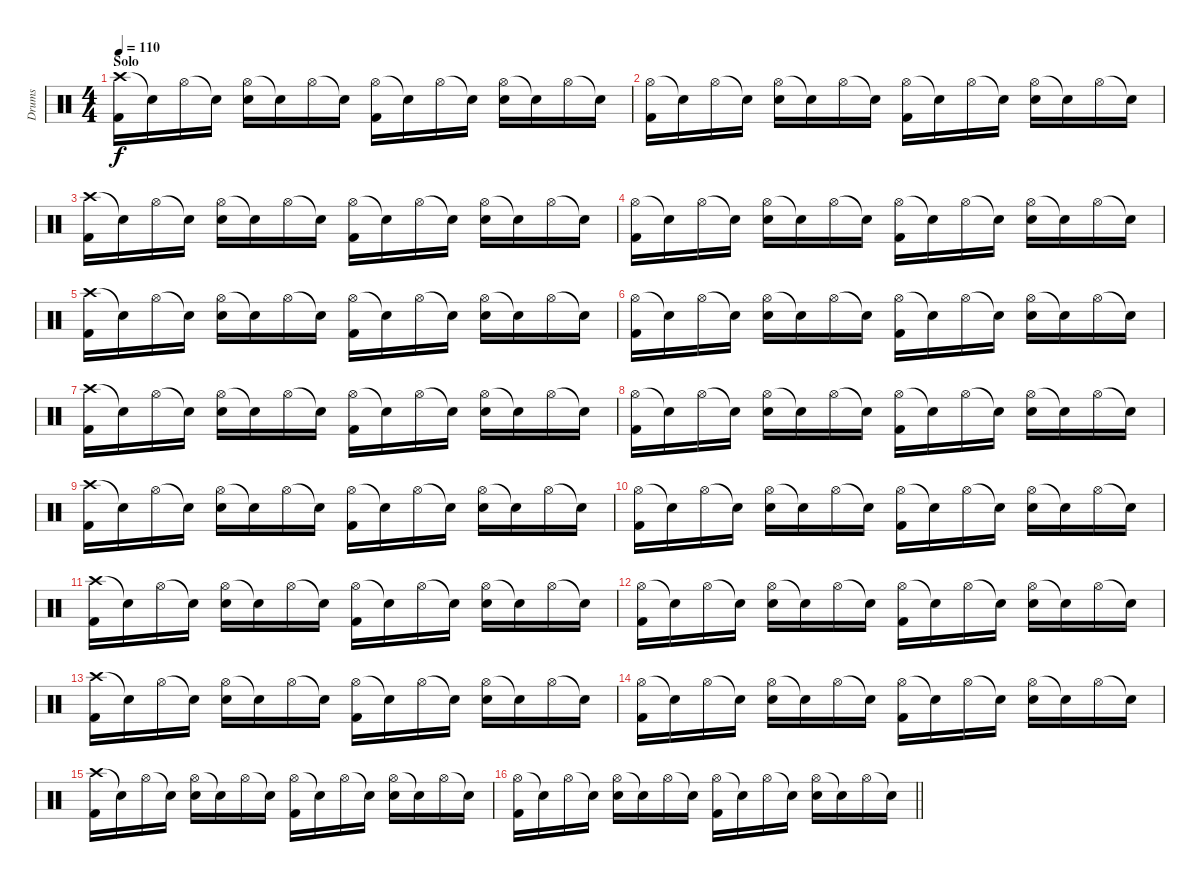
\track ("Drums" "Drums") {instrument percussion}
\staff {score}
\articulation defaults
\ts (4 4)
\section ("" "Solo")
\tempo 110
\clef neutral
\ks c
("Crash high (hit)" "Kick (hit) 2").16{dy f} "Snare (hit)"{t}.16 "Hi-Hat (open)".16 "Snare (hit)"{t}.16 ("Hi-Hat (open)" "Electric Snare (hit)").16 "Snare (hit)"{t}.16 "Hi-Hat (open)".16 "Snare (hit)"{t}.16 ("Hi-Hat (open)" "Kick (hit) 2").16 "Snare (hit)"{t}.16 "Hi-Hat (open)".16 "Snare (hit)"{t}.16 ("Hi-Hat (open)" "Electric Snare (hit)").16 "Snare (hit)"{t}.16 "Hi-Hat (open)".16 "Snare (hit)"{t}.16 |
("Hi-Hat (open)" "Kick (hit) 2").16 "Snare (hit)"{t}.16 "Hi-Hat (open)".16 "Snare (hit)"{t}.16 ("Hi-Hat (open)" "Electric Snare (hit)").16 "Snare (hit)"{t}.16 "Hi-Hat (open)".16 "Snare (hit)"{t}.16 ("Hi-Hat (open)" "Kick (hit) 2").16 "Snare (hit)"{t}.16 "Hi-Hat (open)".16 "Snare (hit)"{t}.16 ("Hi-Hat (open)" "Electric Snare (hit)").16 "Snare (hit)"{t}.16 "Hi-Hat (open)".16 "Snare (hit)"{t}.16 |
("Crash high (hit)" "Kick (hit) 2").16 "Snare (hit)"{t}.16 "Hi-Hat (open)".16 "Snare (hit)"{t}.16 ("Hi-Hat (open)" "Electric Snare (hit)").16 "Snare (hit)"{t}.16 "Hi-Hat (open)".16 "Snare (hit)"{t}.16 ("Hi-Hat (open)" "Kick (hit) 2").16 "Snare (hit)"{t}.16 "Hi-Hat (open)".16 "Snare (hit)"{t}.16 ("Hi-Hat (open)" "Electric Snare (hit)").16 "Snare (hit)"{t}.16 "Hi-Hat (open)".16 "Snare (hit)"{t}.16 |
("Hi-Hat (open)" "Kick (hit) 2").16 "Snare (hit)"{t}.16 "Hi-Hat (open)".16 "Snare (hit)"{t}.16 ("Hi-Hat (open)" "Electric Snare (hit)").16 "Snare (hit)"{t}.16 "Hi-Hat (open)".16 "Snare (hit)"{t}.16 ("Hi-Hat (open)" "Kick (hit) 2").16 "Snare (hit)"{t}.16 "Hi-Hat (open)".16 "Snare (hit)"{t}.16 ("Hi-Hat (open)" "Electric Snare (hit)").16 "Snare (hit)"{t}.16 "Hi-Hat (open)".16 "Snare (hit)"{t}.16 |
("Crash high (hit)" "Kick (hit) 2").16 "Snare (hit)"{t}.16 "Hi-Hat (open)".16 "Snare (hit)"{t}.16 ("Hi-Hat (open)" "Electric Snare (hit)").16 "Snare (hit)"{t}.16 "Hi-Hat (open)".16 "Snare (hit)"{t}.16 ("Hi-Hat (open)" "Kick (hit) 2").16 "Snare (hit)"{t}.16 "Hi-Hat (open)".16 "Snare (hit)"{t}.16 ("Hi-Hat (open)" "Electric Snare (hit)").16 "Snare (hit)"{t}.16 "Hi-Hat (open)".16 "Snare (hit)"{t}.16 |
("Hi-Hat (open)" "Kick (hit) 2").16 "Snare (hit)"{t}.16 "Hi-Hat (open)".16 "Snare (hit)"{t}.16 ("Hi-Hat (open)" "Electric Snare (hit)").16 "Snare (hit)"{t}.16 "Hi-Hat (open)".16 "Snare (hit)"{t}.16 ("Hi-Hat (open)" "Kick (hit) 2").16 "Snare (hit)"{t}.16 "Hi-Hat (open)".16 "Snare (hit)"{t}.16 ("Hi-Hat (open)" "Electric Snare (hit)").16 "Snare (hit)"{t}.16 "Hi-Hat (open)".16 "Snare (hit)"{t}.16 |
("Crash high (hit)" "Kick (hit) 2").16 "Snare (hit)"{t}.16 "Hi-Hat (open)".16 "Snare (hit)"{t}.16 ("Hi-Hat (open)" "Electric Snare (hit)").16 "Snare (hit)"{t}.16 "Hi-Hat (open)".16 "Snare (hit)"{t}.16 ("Hi-Hat (open)" "Kick (hit) 2").16 "Snare (hit)"{t}.16 "Hi-Hat (open)".16 "Snare (hit)"{t}.16 ("Hi-Hat (open)" "Electric Snare (hit)").16 "Snare (hit)"{t}.16 "Hi-Hat (open)".16 "Snare (hit)"{t}.16 |
("Hi-Hat (open)" "Kick (hit) 2").16 "Snare (hit)"{t}.16 "Hi-Hat (open)".16 "Snare (hit)"{t}.16 ("Hi-Hat (open)" "Electric Snare (hit)").16 "Snare (hit)"{t}.16 "Hi-Hat (open)".16 "Snare (hit)"{t}.16 ("Hi-Hat (open)" "Kick (hit) 2").16 "Snare (hit)"{t}.16 "Hi-Hat (open)".16 "Snare (hit)"{t}.16 ("Hi-Hat (open)" "Electric Snare (hit)").16 "Snare (hit)"{t}.16 "Hi-Hat (open)".16 "Snare (hit)"{t}.16 |
("Crash high (hit)" "Kick (hit) 2").16 "Snare (hit)"{t}.16 "Hi-Hat (open)".16 "Snare (hit)"{t}.16 ("Hi-Hat (open)" "Electric Snare (hit)").16 "Snare (hit)"{t}.16 "Hi-Hat (open)".16 "Snare (hit)"{t}.16 ("Hi-Hat (open)" "Kick (hit) 2").16 "Snare (hit)"{t}.16 "Hi-Hat (open)".16 "Snare (hit)"{t}.16 ("Hi-Hat (open)" "Electric Snare (hit)").16 "Snare (hit)"{t}.16 "Hi-Hat (open)".16 "Snare (hit)"{t}.16 |
("Hi-Hat (open)" "Kick (hit) 2").16 "Snare (hit)"{t}.16 "Hi-Hat (open)".16 "Snare (hit)"{t}.16 ("Hi-Hat (open)" "Electric Snare (hit)").16 "Snare (hit)"{t}.16 "Hi-Hat (open)".16 "Snare (hit)"{t}.16 ("Hi-Hat (open)" "Kick (hit) 2").16 "Snare (hit)"{t}.16 "Hi-Hat (open)".16 "Snare (hit)"{t}.16 ("Hi-Hat (open)" "Electric Snare (hit)").16 "Snare (hit)"{t}.16 "Hi-Hat (open)".16 "Snare (hit)"{t}.16 |
("Crash high (hit)" "Kick (hit) 2").16 "Snare (hit)"{t}.16 "Hi-Hat (open)".16 "Snare (hit)"{t}.16 ("Hi-Hat (open)" "Electric Snare (hit)").16 "Snare (hit)"{t}.16 "Hi-Hat (open)".16 "Snare (hit)"{t}.16 ("Hi-Hat (open)" "Kick (hit) 2").16 "Snare (hit)"{t}.16 "Hi-Hat (open)".16 "Snare (hit)"{t}.16 ("Hi-Hat (open)" "Electric Snare (hit)").16 "Snare (hit)"{t}.16 "Hi-Hat (open)".16 "Snare (hit)"{t}.16 |
("Hi-Hat (open)" "Kick (hit) 2").16 "Snare (hit)"{t}.16 "Hi-Hat (open)".16 "Snare (hit)"{t}.16 ("Hi-Hat (open)" "Electric Snare (hit)").16 "Snare (hit)"{t}.16 "Hi-Hat (open)".16 "Snare (hit)"{t}.16 ("Hi-Hat (open)" "Kick (hit) 2").16 "Snare (hit)"{t}.16 "Hi-Hat (open)".16 "Snare (hit)"{t}.16 ("Hi-Hat (open)" "Electric Snare (hit)").16 "Snare (hit)"{t}.16 "Hi-Hat (open)".16 "Snare (hit)"{t}.16 |
("Crash high (hit)" "Kick (hit) 2").16 "Snare (hit)"{t}.16 "Hi-Hat (open)".16 "Snare (hit)"{t}.16 ("Hi-Hat (open)" "Electric Snare (hit)").16 "Snare (hit)"{t}.16 "Hi-Hat (open)".16 "Snare (hit)"{t}.16 ("Hi-Hat (open)" "Kick (hit) 2").16 "Snare (hit)"{t}.16 "Hi-Hat (open)".16 "Snare (hit)"{t}.16 ("Hi-Hat (open)" "Electric Snare (hit)").16 "Snare (hit)"{t}.16 "Hi-Hat (open)".16 "Snare (hit)"{t}.16 |
("Hi-Hat (open)" "Kick (hit) 2").16 "Snare (hit)"{t}.16 "Hi-Hat (open)".16 "Snare (hit)"{t}.16 ("Hi-Hat (open)" "Electric Snare (hit)").16 "Snare (hit)"{t}.16 "Hi-Hat (open)".16 "Snare (hit)"{t}.16 ("Hi-Hat (open)" "Kick (hit) 2").16 "Snare (hit)"{t}.16 "Hi-Hat (open)".16 "Snare (hit)"{t}.16 ("Hi-Hat (open)" "Electric Snare (hit)").16 "Snare (hit)"{t}.16 "Hi-Hat (open)".16 "Snare (hit)"{t}.16 |
("Crash high (hit)" "Kick (hit) 2").16 "Snare (hit)"{t}.16 "Hi-Hat (open)".16 "Snare (hit)"{t}.16 ("Hi-Hat (open)" "Electric Snare (hit)").16 "Snare (hit)"{t}.16 "Hi-Hat (open)".16 "Snare (hit)"{t}.16 ("Hi-Hat (open)" "Kick (hit) 2").16 "Snare (hit)"{t}.16 "Hi-Hat (open)".16 "Snare (hit)"{t}.16 ("Hi-Hat (open)" "Electric Snare (hit)").16 "Snare (hit)"{t}.16 "Hi-Hat (open)".16 "Snare (hit)"{t}.16 |
\barLineRight lightlight
("Hi-Hat (open)" "Kick (hit) 2").16 "Snare (hit)"{t}.16 "Hi-Hat (open)".16 "Snare (hit)"{t}.16 ("Hi-Hat (open)" "Electric Snare (hit)").16 "Snare (hit)"{t}.16 "Hi-Hat (open)".16 "Snare (hit)"{t}.16 ("Hi-Hat (open)" "Kick (hit) 2").16 "Snare (hit)"{t}.16 "Hi-Hat (open)".16 "Snare (hit)"{t}.16 ("Hi-Hat (open)" "Electric Snare (hit)").16 "Snare (hit)"{t}.16 "Hi-Hat (open)".16 "Snare (hit)"{t}.16
